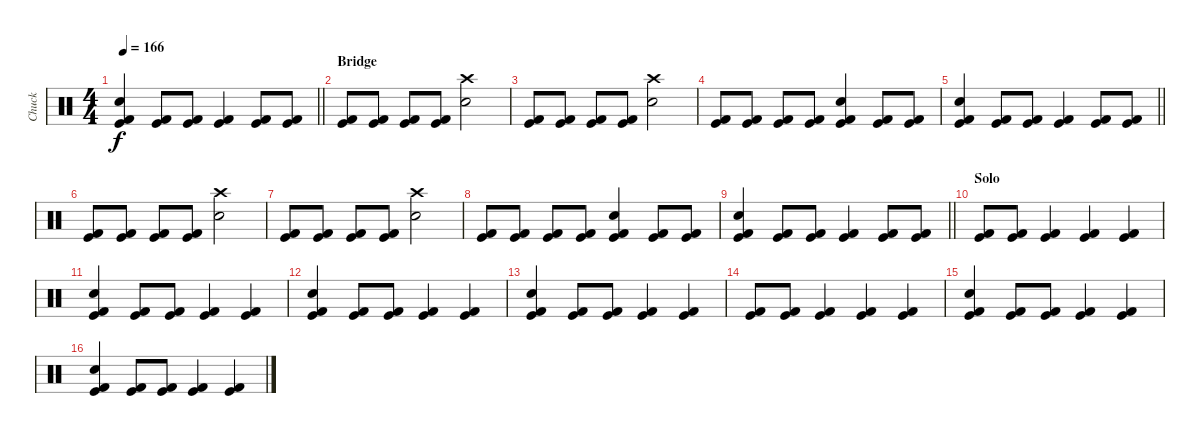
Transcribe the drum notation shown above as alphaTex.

\track ("Chuck" "Chuck") {instrument percussion}
\staff {score}
\articulation defaults
\ts (4 4)
\tempo 166
\clef neutral
\barLineRight lightlight
\ks c
("Kick (hit)" "Kick (hit) 2" "Electric Snare (hit)").4{dy f} ("Kick (hit)" "Kick (hit) 2").8 ("Kick (hit)" "Kick (hit) 2").8 ("Kick (hit)" "Kick (hit) 2").4 ("Kick (hit)" "Kick (hit) 2").8 ("Kick (hit)" "Kick (hit) 2").8 |
\section ("" "Bridge")
("Kick (hit)" "Kick (hit) 2").8 ("Kick (hit)" "Kick (hit) 2").8 ("Kick (hit)" "Kick (hit) 2").8 ("Kick (hit)" "Kick (hit) 2").8 ("Electric Snare (hit)" "Crash high (hit)").2 |
("Kick (hit)" "Kick (hit) 2").8 ("Kick (hit)" "Kick (hit) 2").8 ("Kick (hit)" "Kick (hit) 2").8 ("Kick (hit)" "Kick (hit) 2").8 ("Electric Snare (hit)" "Crash high (hit)").2 |
("Kick (hit)" "Kick (hit) 2").8 ("Kick (hit)" "Kick (hit) 2").8 ("Kick (hit)" "Kick (hit) 2").8 ("Kick (hit)" "Kick (hit) 2").8 ("Kick (hit)" "Kick (hit) 2" "Electric Snare (hit)").4 ("Kick (hit)" "Kick (hit) 2").8 ("Kick (hit)" "Kick (hit) 2").8 |
\barLineRight lightlight
("Kick (hit)" "Kick (hit) 2" "Electric Snare (hit)").4 ("Kick (hit)" "Kick (hit) 2").8 ("Kick (hit)" "Kick (hit) 2").8 ("Kick (hit)" "Kick (hit) 2").4 ("Kick (hit)" "Kick (hit) 2").8 ("Kick (hit)" "Kick (hit) 2").8 |
("Kick (hit)" "Kick (hit) 2").8 ("Kick (hit)" "Kick (hit) 2").8 ("Kick (hit)" "Kick (hit) 2").8 ("Kick (hit)" "Kick (hit) 2").8 ("Electric Snare (hit)" "Crash high (hit)").2 |
("Kick (hit)" "Kick (hit) 2").8 ("Kick (hit)" "Kick (hit) 2").8 ("Kick (hit)" "Kick (hit) 2").8 ("Kick (hit)" "Kick (hit) 2").8 ("Electric Snare (hit)" "Crash high (hit)").2 |
("Kick (hit)" "Kick (hit) 2").8 ("Kick (hit)" "Kick (hit) 2").8 ("Kick (hit)" "Kick (hit) 2").8 ("Kick (hit)" "Kick (hit) 2").8 ("Kick (hit)" "Kick (hit) 2" "Electric Snare (hit)").4 ("Kick (hit)" "Kick (hit) 2").8 ("Kick (hit)" "Kick (hit) 2").8 |
\barLineRight lightlight
("Kick (hit)" "Kick (hit) 2" "Electric Snare (hit)").4 ("Kick (hit)" "Kick (hit) 2").8 ("Kick (hit)" "Kick (hit) 2").8 ("Kick (hit)" "Kick (hit) 2").4 ("Kick (hit)" "Kick (hit) 2").8 ("Kick (hit)" "Kick (hit) 2").8 |
\section ("" "Solo")
("Kick (hit)" "Kick (hit) 2").8 ("Kick (hit)" "Kick (hit) 2").8 ("Kick (hit)" "Kick (hit) 2").4 ("Kick (hit)" "Kick (hit) 2").4 ("Kick (hit)" "Kick (hit) 2").4 |
("Kick (hit)" "Kick (hit) 2" "Electric Snare (hit)").4 ("Kick (hit)" "Kick (hit) 2").8 ("Kick (hit)" "Kick (hit) 2").8 ("Kick (hit)" "Kick (hit) 2").4 ("Kick (hit)" "Kick (hit) 2").4 |
("Kick (hit)" "Kick (hit) 2" "Electric Snare (hit)").4 ("Kick (hit)" "Kick (hit) 2").8 ("Kick (hit)" "Kick (hit) 2").8 ("Kick (hit)" "Kick (hit) 2").4 ("Kick (hit)" "Kick (hit) 2").4 |
("Kick (hit)" "Kick (hit) 2" "Electric Snare (hit)").4 ("Kick (hit)" "Kick (hit) 2").8 ("Kick (hit)" "Kick (hit) 2").8 ("Kick (hit)" "Kick (hit) 2").4 ("Kick (hit)" "Kick (hit) 2").4 |
("Kick (hit)" "Kick (hit) 2").8 ("Kick (hit)" "Kick (hit) 2").8 ("Kick (hit)" "Kick (hit) 2").4 ("Kick (hit)" "Kick (hit) 2").4 ("Kick (hit)" "Kick (hit) 2").4 |
("Kick (hit)" "Kick (hit) 2" "Electric Snare (hit)").4 ("Kick (hit)" "Kick (hit) 2").8 ("Kick (hit)" "Kick (hit) 2").8 ("Kick (hit)" "Kick (hit) 2").4 ("Kick (hit)" "Kick (hit) 2").4 |
("Kick (hit)" "Kick (hit) 2" "Electric Snare (hit)").4 ("Kick (hit)" "Kick (hit) 2").8 ("Kick (hit)" "Kick (hit) 2").8 ("Kick (hit)" "Kick (hit) 2").4 ("Kick (hit)" "Kick (hit) 2").4
